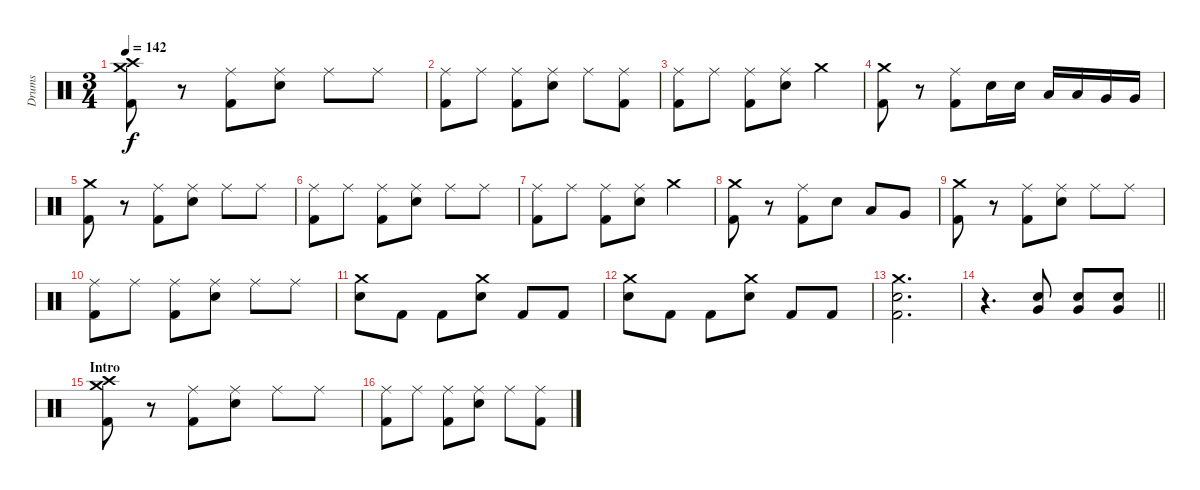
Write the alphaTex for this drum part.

\track ("Drums" "Drums") {instrument percussion}
\staff {score}
\articulation defaults
\ts (3 4)
\tempo 142
\clef neutral
\ks c
("Crash medium (hit)" "Crash high (hit)" "Kick (hit) 2").8{dy f} r.8 ("Ride (middle)" "Kick (hit) 2").8 ("Ride (middle)" "Electric Snare (hit)").8 "Ride (middle)".8 "Ride (middle)".8 |
("Ride (middle)" "Kick (hit) 2").8 "Ride (middle)".8 ("Ride (middle)" "Kick (hit) 2").8 ("Ride (middle)" "Electric Snare (hit)").8 "Ride (middle)".8 ("Ride (middle)" "Kick (hit) 2").8 |
("Ride (middle)" "Kick (hit) 2").8 "Ride (middle)".8 ("Ride (middle)" "Kick (hit) 2").8 ("Ride (middle)" "Electric Snare (hit)").8 "Crash medium (hit)".4 |
("Crash medium (hit)" "Kick (hit) 2").8 r.8 ("Ride (middle)" "Kick (hit) 2").8 "Electric Snare (hit)".16 "Electric Snare (hit)".16 "Low Tom (hit)".16 "Low Tom (hit)".16 "Very Low Tom (hit)".16 "Very Low Tom (hit)".16 |
("Crash medium (hit)" "Kick (hit) 2").8 r.8 ("Ride (middle)" "Kick (hit) 2").8 ("Ride (middle)" "Electric Snare (hit)").8 "Ride (middle)".8 "Ride (middle)".8 |
("Ride (middle)" "Kick (hit) 2").8 "Ride (middle)".8 ("Ride (middle)" "Kick (hit) 2").8 ("Ride (middle)" "Electric Snare (hit)").8 "Ride (middle)".8 "Ride (middle)".8 |
("Ride (middle)" "Kick (hit) 2").8 "Ride (middle)".8 ("Ride (middle)" "Kick (hit) 2").8 ("Ride (middle)" "Electric Snare (hit)").8 "Crash medium (hit)".4 |
("Crash medium (hit)" "Kick (hit) 2").8 r.8 ("Ride (middle)" "Kick (hit) 2").8 "Electric Snare (hit)".8 "Low Tom (hit)".8 "Very Low Tom (hit)".8 |
("Crash medium (hit)" "Kick (hit) 2").8 r.8 ("Ride (middle)" "Kick (hit) 2").8 ("Ride (middle)" "Electric Snare (hit)").8 "Ride (middle)".8 "Ride (middle)".8 |
("Ride (middle)" "Kick (hit) 2").8 "Ride (middle)".8 ("Ride (middle)" "Kick (hit) 2").8 ("Ride (middle)" "Electric Snare (hit)").8 "Ride (middle)".8 "Ride (middle)".8 |
("Crash medium (hit)" "Electric Snare (hit)").8 "Kick (hit) 2".8 "Kick (hit) 2".8 ("Crash medium (hit)" "Electric Snare (hit)").8 "Kick (hit) 2".8 "Kick (hit) 2".8 |
("Crash medium (hit)" "Electric Snare (hit)").8 "Kick (hit) 2".8 "Kick (hit) 2".8 ("Crash medium (hit)" "Electric Snare (hit)").8 "Kick (hit) 2".8 "Kick (hit) 2".8 |
("Crash medium (hit)" "Electric Snare (hit)" "Kick (hit) 2").2{d} |
\barLineRight lightlight
r.4{d} ("Electric Snare (hit)" "Very Low Tom (hit)").8 ("Electric Snare (hit)" "Very Low Tom (hit)").8 ("Electric Snare (hit)" "Very Low Tom (hit)").8 |
\section ("" "Intro")
("Crash medium (hit)" "Crash high (hit)" "Kick (hit) 2").8 r.8 ("Ride (middle)" "Kick (hit) 2").8 ("Ride (middle)" "Electric Snare (hit)").8 "Ride (middle)".8 "Ride (middle)".8 |
("Ride (middle)" "Kick (hit) 2").8 "Ride (middle)".8 ("Ride (middle)" "Kick (hit) 2").8 ("Ride (middle)" "Electric Snare (hit)").8 "Ride (middle)".8 ("Ride (middle)" "Kick (hit) 2").8
